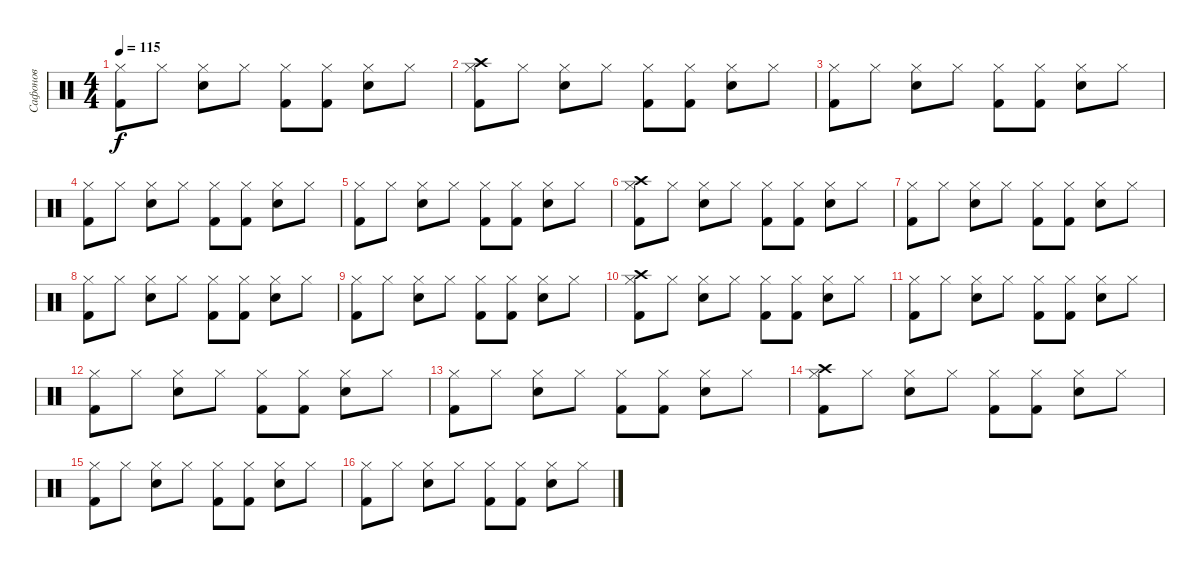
\track ("Сафонов" "Сафонов") {instrument percussion}
\staff {score}
\articulation defaults
\ts (4 4)
\tempo 115
\clef neutral
\ks c
("Hi-Hat (closed)" "Kick (hit) 2").8{dy f} "Hi-Hat (closed)".8 ("Hi-Hat (closed)" "Electric Snare (hit)").8 "Hi-Hat (closed)".8 ("Hi-Hat (closed)" "Kick (hit) 2").8 ("Hi-Hat (closed)" "Kick (hit) 2").8 ("Hi-Hat (closed)" "Electric Snare (hit)").8 "Hi-Hat (closed)".8 |
("Crash high (hit)" "Hi-Hat (closed)" "Kick (hit) 2").8 "Hi-Hat (closed)".8 ("Hi-Hat (closed)" "Electric Snare (hit)").8 "Hi-Hat (closed)".8 ("Hi-Hat (closed)" "Kick (hit) 2").8 ("Hi-Hat (closed)" "Kick (hit) 2").8 ("Hi-Hat (closed)" "Electric Snare (hit)").8 "Hi-Hat (closed)".8 |
("Hi-Hat (closed)" "Kick (hit) 2").8 "Hi-Hat (closed)".8 ("Hi-Hat (closed)" "Electric Snare (hit)").8 "Hi-Hat (closed)".8 ("Hi-Hat (closed)" "Kick (hit) 2").8 ("Hi-Hat (closed)" "Kick (hit) 2").8 ("Hi-Hat (closed)" "Electric Snare (hit)").8 "Hi-Hat (closed)".8 |
("Hi-Hat (closed)" "Kick (hit) 2").8 "Hi-Hat (closed)".8 ("Hi-Hat (closed)" "Electric Snare (hit)").8 "Hi-Hat (closed)".8 ("Hi-Hat (closed)" "Kick (hit) 2").8 ("Hi-Hat (closed)" "Kick (hit) 2").8 ("Hi-Hat (closed)" "Electric Snare (hit)").8 "Hi-Hat (closed)".8 |
("Hi-Hat (closed)" "Kick (hit) 2").8 "Hi-Hat (closed)".8 ("Hi-Hat (closed)" "Electric Snare (hit)").8 "Hi-Hat (closed)".8 ("Hi-Hat (closed)" "Kick (hit) 2").8 ("Hi-Hat (closed)" "Kick (hit) 2").8 ("Hi-Hat (closed)" "Electric Snare (hit)").8 "Hi-Hat (closed)".8 |
("Crash high (hit)" "Hi-Hat (closed)" "Kick (hit) 2").8 "Hi-Hat (closed)".8 ("Hi-Hat (closed)" "Electric Snare (hit)").8 "Hi-Hat (closed)".8 ("Hi-Hat (closed)" "Kick (hit) 2").8 ("Hi-Hat (closed)" "Kick (hit) 2").8 ("Hi-Hat (closed)" "Electric Snare (hit)").8 "Hi-Hat (closed)".8 |
("Hi-Hat (closed)" "Kick (hit) 2").8 "Hi-Hat (closed)".8 ("Hi-Hat (closed)" "Electric Snare (hit)").8 "Hi-Hat (closed)".8 ("Hi-Hat (closed)" "Kick (hit) 2").8 ("Hi-Hat (closed)" "Kick (hit) 2").8 ("Hi-Hat (closed)" "Electric Snare (hit)").8 "Hi-Hat (closed)".8 |
("Hi-Hat (closed)" "Kick (hit) 2").8 "Hi-Hat (closed)".8 ("Hi-Hat (closed)" "Electric Snare (hit)").8 "Hi-Hat (closed)".8 ("Hi-Hat (closed)" "Kick (hit) 2").8 ("Hi-Hat (closed)" "Kick (hit) 2").8 ("Hi-Hat (closed)" "Electric Snare (hit)").8 "Hi-Hat (closed)".8 |
("Hi-Hat (closed)" "Kick (hit) 2").8 "Hi-Hat (closed)".8 ("Hi-Hat (closed)" "Electric Snare (hit)").8 "Hi-Hat (closed)".8 ("Hi-Hat (closed)" "Kick (hit) 2").8 ("Hi-Hat (closed)" "Kick (hit) 2").8 ("Hi-Hat (closed)" "Electric Snare (hit)").8 "Hi-Hat (closed)".8 |
("Crash high (hit)" "Hi-Hat (closed)" "Kick (hit) 2").8 "Hi-Hat (closed)".8 ("Hi-Hat (closed)" "Electric Snare (hit)").8 "Hi-Hat (closed)".8 ("Hi-Hat (closed)" "Kick (hit) 2").8 ("Hi-Hat (closed)" "Kick (hit) 2").8 ("Hi-Hat (closed)" "Electric Snare (hit)").8 "Hi-Hat (closed)".8 |
("Hi-Hat (closed)" "Kick (hit) 2").8 "Hi-Hat (closed)".8 ("Hi-Hat (closed)" "Electric Snare (hit)").8 "Hi-Hat (closed)".8 ("Hi-Hat (closed)" "Kick (hit) 2").8 ("Hi-Hat (closed)" "Kick (hit) 2").8 ("Hi-Hat (closed)" "Electric Snare (hit)").8 "Hi-Hat (closed)".8 |
("Hi-Hat (closed)" "Kick (hit) 2").8 "Hi-Hat (closed)".8 ("Hi-Hat (closed)" "Electric Snare (hit)").8 "Hi-Hat (closed)".8 ("Hi-Hat (closed)" "Kick (hit) 2").8 ("Hi-Hat (closed)" "Kick (hit) 2").8 ("Hi-Hat (closed)" "Electric Snare (hit)").8 "Hi-Hat (closed)".8 |
("Hi-Hat (closed)" "Kick (hit) 2").8 "Hi-Hat (closed)".8 ("Hi-Hat (closed)" "Electric Snare (hit)").8 "Hi-Hat (closed)".8 ("Hi-Hat (closed)" "Kick (hit) 2").8 ("Hi-Hat (closed)" "Kick (hit) 2").8 ("Hi-Hat (closed)" "Electric Snare (hit)").8 "Hi-Hat (closed)".8 |
("Crash high (hit)" "Hi-Hat (closed)" "Kick (hit) 2").8 "Hi-Hat (closed)".8 ("Hi-Hat (closed)" "Electric Snare (hit)").8 "Hi-Hat (closed)".8 ("Hi-Hat (closed)" "Kick (hit) 2").8 ("Hi-Hat (closed)" "Kick (hit) 2").8 ("Hi-Hat (closed)" "Electric Snare (hit)").8 "Hi-Hat (closed)".8 |
("Hi-Hat (closed)" "Kick (hit) 2").8 "Hi-Hat (closed)".8 ("Hi-Hat (closed)" "Electric Snare (hit)").8 "Hi-Hat (closed)".8 ("Hi-Hat (closed)" "Kick (hit) 2").8 ("Hi-Hat (closed)" "Kick (hit) 2").8 ("Hi-Hat (closed)" "Electric Snare (hit)").8 "Hi-Hat (closed)".8 |
("Hi-Hat (closed)" "Kick (hit) 2").8 "Hi-Hat (closed)".8 ("Hi-Hat (closed)" "Electric Snare (hit)").8 "Hi-Hat (closed)".8 ("Hi-Hat (closed)" "Kick (hit) 2").8 ("Hi-Hat (closed)" "Kick (hit) 2").8 ("Hi-Hat (closed)" "Electric Snare (hit)").8 "Hi-Hat (closed)".8
